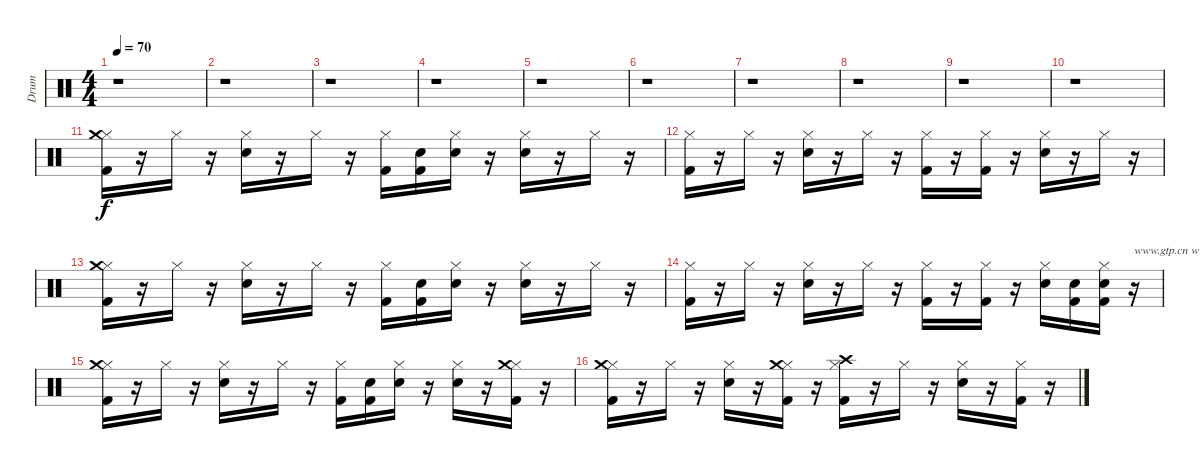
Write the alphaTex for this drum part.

\track ("Drum" "Drum") {instrument percussion}
\staff {score}
\articulation defaults
\ts (4 4)
\tempo 70
\clef neutral
\ks c
r.1{dy f} |
r.1 |
r.1 |
r.1 |
r.1 |
r.1 |
r.1 |
r.1 |
r.1 |
r.1 |
("Kick (hit) 2" "Hi-Hat (closed)" "Crash medium (hit)").16 r.16 "Hi-Hat (closed)".16 r.16 ("Hi-Hat (closed)" "Snare (hit) 2").16 r.16 "Hi-Hat (closed)".16 r.16 ("Kick (hit) 2" "Hi-Hat (closed)").16 ("Snare (hit)" "Kick (hit) 2").16 ("Snare (hit)" "Hi-Hat (closed)").16 r.16 ("Hi-Hat (closed)" "Snare (hit) 2").16 r.16 "Hi-Hat (closed)".16 r.16 |
("Kick (hit) 2" "Hi-Hat (closed)").16 r.16 "Hi-Hat (closed)".16 r.16 ("Hi-Hat (closed)" "Snare (hit) 2").16 r.16 "Hi-Hat (closed)".16 r.16 ("Kick (hit) 2" "Hi-Hat (closed)").16 r.16 ("Kick (hit) 2" "Hi-Hat (closed)").16 r.16 ("Hi-Hat (closed)" "Snare (hit) 2").16 r.16 "Hi-Hat (closed)".16 r.16 |
("Kick (hit) 2" "Hi-Hat (closed)" "Crash medium (hit)").16 r.16 "Hi-Hat (closed)".16 r.16 ("Hi-Hat (closed)" "Snare (hit) 2").16 r.16 "Hi-Hat (closed)".16 r.16 ("Kick (hit) 2" "Hi-Hat (closed)").16 ("Snare (hit)" "Kick (hit) 2").16 ("Snare (hit)" "Hi-Hat (closed)").16 r.16 ("Hi-Hat (closed)" "Snare (hit) 2").16 r.16 "Hi-Hat (closed)".16 r.16 |
("Kick (hit) 2" "Hi-Hat (closed)").16 r.16 "Hi-Hat (closed)".16 r.16 ("Hi-Hat (closed)" "Snare (hit) 2").16 r.16 "Hi-Hat (closed)".16 r.16 ("Kick (hit) 2" "Hi-Hat (closed)").16 r.16 ("Kick (hit) 2" "Hi-Hat (closed)").16 r.16 ("Hi-Hat (closed)" "Snare (hit) 2").16 ("Snare (hit)" "Kick (hit) 2").16 ("Snare (hit)" "Kick (hit) 2" "Hi-Hat (closed)").16 r.16{txt "www.gtp.cn www.51gtp.com联合为您提供优秀的GTP!"} |
("Kick (hit) 2" "Hi-Hat (closed)" "Crash medium (hit)").16 r.16 "Hi-Hat (closed)".16 r.16 ("Hi-Hat (closed)" "Snare (hit) 2").16 r.16 "Hi-Hat (closed)".16 r.16 ("Kick (hit) 2" "Hi-Hat (closed)").16 ("Snare (hit)" "Kick (hit) 2").16 ("Snare (hit)" "Hi-Hat (closed)").16 r.16 ("Hi-Hat (closed)" "Snare (hit) 2").16 r.16 ("Kick (hit) 2" "Hi-Hat (closed)" "Crash medium (hit)").16 r.16 |
("Kick (hit) 2" "Hi-Hat (closed)" "Crash medium (hit)").16 r.16 "Hi-Hat (closed)".16 r.16 ("Hi-Hat (closed)" "Snare (hit) 2").16 r.16 ("Kick (hit) 2" "Hi-Hat (closed)" "Crash medium (hit)").16 r.16 ("Kick (hit) 2" "Hi-Hat (closed)" "Crash high (hit)").16 r.16 "Hi-Hat (closed)".16 r.16 ("Hi-Hat (closed)" "Snare (hit) 2").16 r.16 ("Kick (hit) 2" "Hi-Hat (closed)").16 r.16
